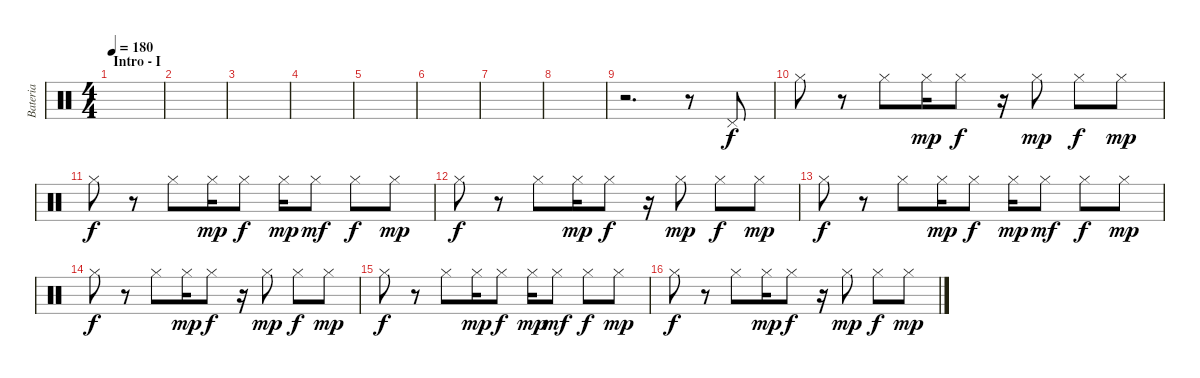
\track ("Bateria" "Bateria") {instrument percussion}
\staff {score}
\articulation defaults
\ts (4 4)
\section ("" "Intro - I")
\tempo 180
\tempo 105
\tempo 180
\clef neutral
\ks c
|
|
|
|
|
|
|
|
r.2{d} r.8 "Pedal Hi-Hat (hit)".8 |
"Hi-Hat (closed)".8 r.8 "Hi-Hat (closed)".8 "Hi-Hat (closed)".16{dy mp} "Hi-Hat (closed)".8{dy f} r.16 "Hi-Hat (closed)".8{dy mp} "Hi-Hat (closed)".8{dy f} "Hi-Hat (closed)".8{dy mp} |
"Hi-Hat (closed)".8{dy f} r.8 "Hi-Hat (closed)".8 "Hi-Hat (closed)".16{dy mp} "Hi-Hat (closed)".8{dy f} "Hi-Hat (closed)".16{dy mp} "Hi-Hat (closed)".8{dy mf} "Hi-Hat (closed)".8{dy f} "Hi-Hat (closed)".8{dy mp} |
"Hi-Hat (closed)".8{dy f} r.8 "Hi-Hat (closed)".8 "Hi-Hat (closed)".16{dy mp} "Hi-Hat (closed)".8{dy f} r.16 "Hi-Hat (closed)".8{dy mp} "Hi-Hat (closed)".8{dy f} "Hi-Hat (closed)".8{dy mp} |
"Hi-Hat (closed)".8{dy f} r.8 "Hi-Hat (closed)".8 "Hi-Hat (closed)".16{dy mp} "Hi-Hat (closed)".8{dy f} "Hi-Hat (closed)".16{dy mp} "Hi-Hat (closed)".8{dy mf} "Hi-Hat (closed)".8{dy f} "Hi-Hat (closed)".8{dy mp} |
"Hi-Hat (closed)".8{dy f} r.8 "Hi-Hat (closed)".8 "Hi-Hat (closed)".16{dy mp} "Hi-Hat (closed)".8{dy f} r.16 "Hi-Hat (closed)".8{dy mp} "Hi-Hat (closed)".8{dy f} "Hi-Hat (closed)".8{dy mp} |
"Hi-Hat (closed)".8{dy f} r.8 "Hi-Hat (closed)".8 "Hi-Hat (closed)".16{dy mp} "Hi-Hat (closed)".8{dy f} "Hi-Hat (closed)".16{dy mp} "Hi-Hat (closed)".8{dy mf} "Hi-Hat (closed)".8{dy f} "Hi-Hat (closed)".8{dy mp} |
"Hi-Hat (closed)".8{dy f} r.8 "Hi-Hat (closed)".8 "Hi-Hat (closed)".16{dy mp} "Hi-Hat (closed)".8{dy f} r.16 "Hi-Hat (closed)".8{dy mp} "Hi-Hat (closed)".8{dy f} "Hi-Hat (closed)".8{dy mp}
